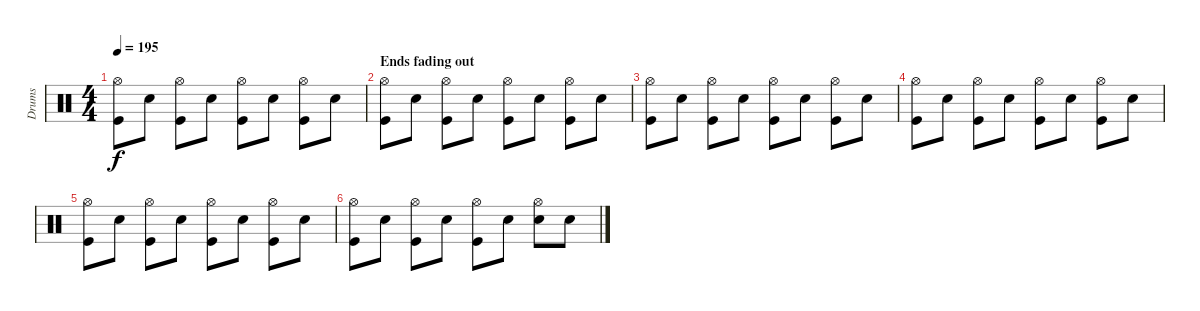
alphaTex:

\track ("Drums" "Drums") {instrument percussion}
\staff {score}
\articulation defaults
\ts (4 4)
\tempo 195
\clef neutral
\ks c
("Hi-Hat (open)" "Kick (hit)").8{dy f} "Electric Snare (hit)".8 ("Hi-Hat (open)" "Kick (hit)").8 "Electric Snare (hit)".8 ("Hi-Hat (open)" "Kick (hit)").8 "Electric Snare (hit)".8 ("Hi-Hat (open)" "Kick (hit)").8 "Electric Snare (hit)".8 |
\section ("" "Ends fading out")
("Hi-Hat (open)" "Kick (hit)").8 "Electric Snare (hit)".8 ("Hi-Hat (open)" "Kick (hit)").8 "Electric Snare (hit)".8 ("Hi-Hat (open)" "Kick (hit)").8 "Electric Snare (hit)".8 ("Hi-Hat (open)" "Kick (hit)").8 "Electric Snare (hit)".8 |
("Hi-Hat (open)" "Kick (hit)").8 "Electric Snare (hit)".8 ("Hi-Hat (open)" "Kick (hit)").8 "Electric Snare (hit)".8 ("Hi-Hat (open)" "Kick (hit)").8 "Electric Snare (hit)".8 ("Hi-Hat (open)" "Kick (hit)").8 "Electric Snare (hit)".8 |
("Hi-Hat (open)" "Kick (hit)").8 "Electric Snare (hit)".8 ("Hi-Hat (open)" "Kick (hit)").8 "Electric Snare (hit)".8 ("Hi-Hat (open)" "Kick (hit)").8 "Electric Snare (hit)".8 ("Hi-Hat (open)" "Kick (hit)").8 "Electric Snare (hit)".8 |
("Hi-Hat (open)" "Kick (hit)").8 "Electric Snare (hit)".8 ("Hi-Hat (open)" "Kick (hit)").8 "Electric Snare (hit)".8 ("Hi-Hat (open)" "Kick (hit)").8 "Electric Snare (hit)".8 ("Hi-Hat (open)" "Kick (hit)").8 "Electric Snare (hit)".8 |
("Hi-Hat (open)" "Kick (hit)").8 "Electric Snare (hit)".8 ("Hi-Hat (open)" "Kick (hit)").8 "Electric Snare (hit)".8 ("Hi-Hat (open)" "Kick (hit)").8 "Electric Snare (hit)".8 ("Hi-Hat (open)" "Electric Snare (hit)").8 "Electric Snare (hit)".8
